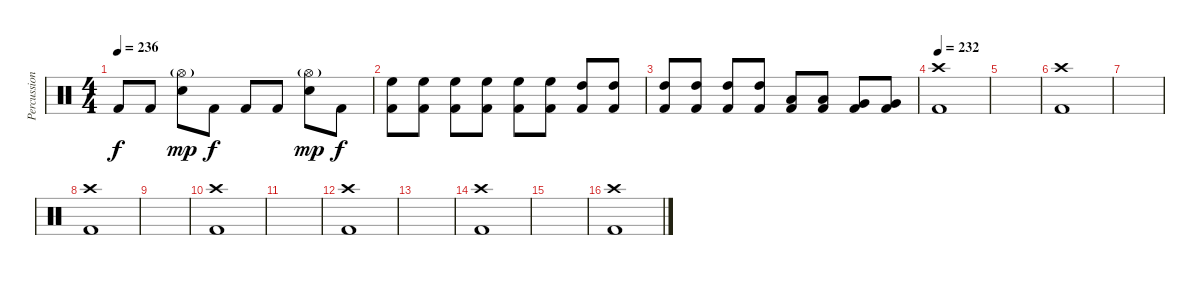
\track ("Percussion" "Percussion") {instrument percussion}
\staff {score}
\articulation defaults
\ts (4 4)
\tempo 236
\clef neutral
\ks c "Kick (hit) 2".8{dy f} "Kick (hit) 2".8
("Hi-Hat (open)"{g} "Electric Snare (hit)").8{dy mp} "Kick (hit) 2".8{dy f} "Kick (hit) 2".8 "Kick (hit) 2".8 ("Hi-Hat (open)"{g} "Electric Snare (hit)").8{dy mp} "Kick (hit) 2".8{dy f} |
("High Floor Tom (hit)" "Kick (hit) 2").8 ("High Floor Tom (hit)" "Kick (hit) 2").8 ("High Floor Tom (hit)" "Kick (hit) 2").8 ("High Floor Tom (hit)" "Kick (hit) 2").8 ("High Floor Tom (hit)" "Kick (hit) 2").8 ("High Floor Tom (hit)" "Kick (hit) 2").8 ("High Tom (hit)" "Kick (hit) 2").8 ("High Tom (hit)" "Kick (hit) 2").8 |
("High Tom (hit)" "Kick (hit) 2").8 ("High Tom (hit)" "Kick (hit) 2").8 ("High Tom (hit)" "Kick (hit) 2").8 ("High Tom (hit)" "Kick (hit) 2").8 ("Low Tom (hit)" "Kick (hit) 2").8 ("Low Tom (hit)" "Kick (hit) 2").8 ("Very Low Tom (hit)" "Kick (hit) 2").8 ("Very Low Tom (hit)" "Kick (hit) 2").8 |
\tempo 232
("Crash high (hit)" "Kick (hit) 2").1 |
|
("Crash high (hit)" "Kick (hit) 2").1 |
|
("Crash high (hit)" "Kick (hit) 2").1 |
|
("Crash high (hit)" "Kick (hit) 2").1 |
|
("Crash high (hit)" "Kick (hit) 2").1 |
|
("Crash high (hit)" "Kick (hit) 2").1 |
|
("Crash high (hit)" "Kick (hit) 2").1
